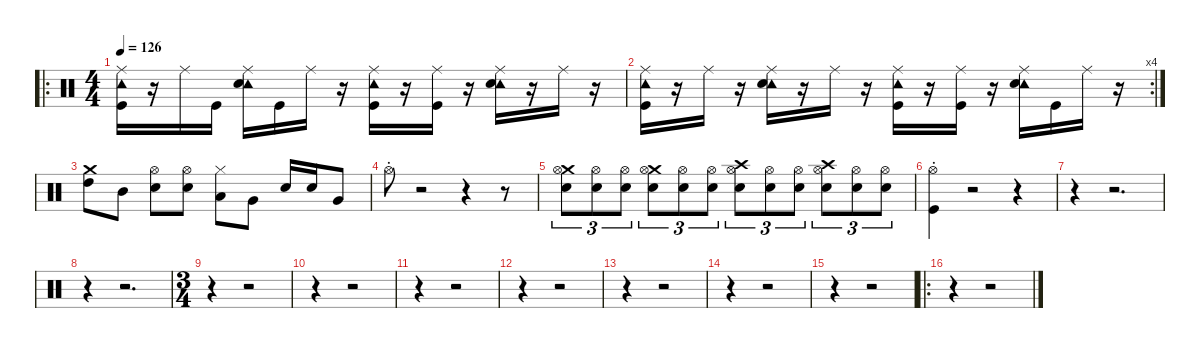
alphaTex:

\defaultSystemsLayout 4
\hideDynamics
\bracketExtendMode nobrackets
\singleTrackTrackNamePolicy hidden
\multiTrackTrackNamePolicy hidden
\firstSystemTrackNameMode fullname
\firstSystemTrackNameOrientation horizontal
\otherSystemsTrackNameOrientation horizontal
\track ("Drums" "drm.") {instrument percussion}
\staff {score}
\articulation defaults
\ro
\ts (4 4)
\tempo 126
\clef neutral
\ks c
("Tambourine (hit)" "Ride (middle)" "Kick (hit)").16{dy f beam Down} r.16{beam Down} "Ride (middle)".16{beam Down} "Kick (hit)".16{beam Down} ("Tambourine (hit)" "Ride (middle)" "Snare (hit) 2").16{beam Down} "Kick (hit)".16{beam Down} "Ride (middle)".16{beam Down} r.16{beam Down} ("Tambourine (hit)" "Ride (middle)" "Kick (hit)").16{beam Down} r.16{beam Down} ("Ride (middle)" "Kick (hit)").16{beam Down} r.16{beam Down} ("Tambourine (hit)" "Ride (middle)" "Snare (hit) 2").16{beam Down} r.16{beam Down} "Ride (middle)".16{beam Down} r.16{beam Down} |
\rc 4
("Tambourine (hit)" "Ride (middle)" "Kick (hit)").16{beam Down} r.16{beam Down} "Ride (middle)".16{beam Down} r.16{beam Down} ("Tambourine (hit)" "Ride (middle)" "Snare (hit) 2").16{beam Down} r.16{beam Down} "Ride (middle)".16{beam Down} r.16{beam Down} ("Tambourine (hit)" "Ride (middle)" "Kick (hit)").16{beam Down} r.16{beam Down} ("Ride (middle)" "Kick (hit)").16{beam Down} r.16{beam Down} ("Tambourine (hit)" "Ride (middle)" "Snare (hit) 2").16{beam Down} "Kick (hit)".16{beam Down} "Ride (middle)".16{beam Down} r.16{beam Down} |
("Crash medium (hit)" "High Tom (hit)").8{beam Down} "Mid Tom (hit)".8{beam Down} ("Hi-Hat (open)" "Snare (hit) 2").8{beam Down} ("Hi-Hat (open)" "Snare (hit) 2").8{beam Down} ("Hi-Hat (closed)" "Low Tom (hit)").8{beam Down} "Very Low Tom (hit)".8{beam Down} "Snare (hit) 2".16{beam Up} "Snare (hit) 2".16{beam Up} "Very Low Tom (hit)".8{beam Up} |
"Hi-Hat (open)"{st}.8{beam Down} r.2{beam Down} r.4{beam Down} r.8{beam Down} |
("Crash medium (hit)" "Hi-Hat (open)" "Snare (hit) 2").8{tu (3 2) beam Down} ("Hi-Hat (open)" "Snare (hit) 2").8{tu (3 2) beam Down} ("Hi-Hat (open)" "Snare (hit) 2").8{tu (3 2) beam Down} ("Crash medium (hit)" "Hi-Hat (open)" "Snare (hit) 2").8{tu (3 2) beam Down} ("Hi-Hat (open)" "Snare (hit) 2").8{tu (3 2) beam Down} ("Hi-Hat (open)" "Snare (hit) 2").8{tu (3 2) beam Down} ("Crash high (hit)" "Hi-Hat (open)" "Snare (hit) 2").8{tu (3 2) beam Down} ("Hi-Hat (open)" "Snare (hit) 2").8{tu (3 2) beam Down} ("Hi-Hat (open)" "Snare (hit) 2").8{tu (3 2) beam Down} ("Crash high (hit)" "Hi-Hat (open)" "Snare (hit) 2").8{tu (3 2) beam Down} ("Hi-Hat (open)" "Snare (hit) 2").8{tu (3 2) beam Down} ("Hi-Hat (open)" "Snare (hit) 2").8{tu (3 2) beam Down} |
("Hi-Hat (open)"{st} "Kick (hit)").4{beam Down} r.2{beam Down} r.4{beam Down} |
r.4{beam Down} r.2{d beam Down} |
r.4{beam Down} r.2{d beam Down} |
\ts (3 4)
\beaming (8 2 2 2)
r.4{beam Down} r.2{beam Down} |
r.4{beam Down} r.2{beam Down} |
r.4{beam Down} r.2{beam Down} |
r.4{beam Down} r.2{beam Down} |
r.4{beam Down} r.2{beam Down} |
r.4{beam Down} r.2{beam Down} |
r.4{beam Down} r.2{beam Down} |
\ro
r.4{beam Down} r.2{beam Down}
